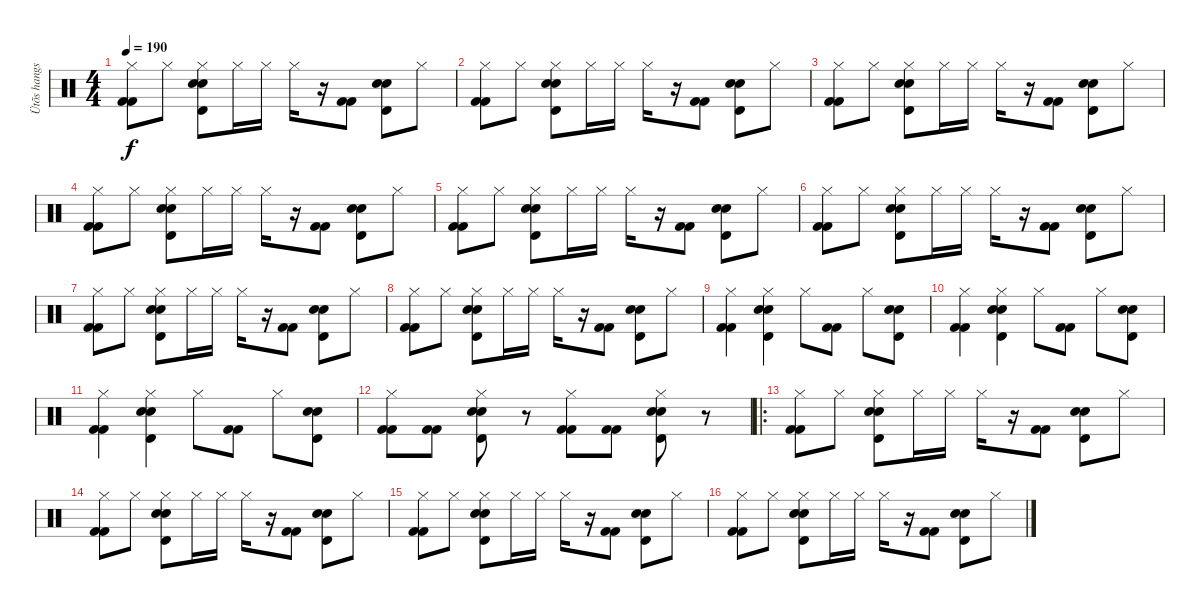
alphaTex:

\track ("Ütõs hangszer" "Ütõs hangs") {instrument percussion}
\staff {score}
\articulation defaults
\ts (4 4)
\tempo 190
\clef neutral
\ks c
("Hi-Hat (closed)" "Kick (hit) 2" "Kick (hit) 2").8{dy f} "Hi-Hat (closed)".8 ("Hi-Hat (closed)" "Timbale high (hit)" "Electric Snare (hit)" "Electric Snare (hit)").8 "Hi-Hat (closed)".16 "Hi-Hat (closed)".16 "Hi-Hat (closed)".16 r.16 ("Kick (hit) 2" "Kick (hit) 2").8 ("Timbale high (hit)" "Electric Snare (hit)" "Electric Snare (hit)").8 "Hi-Hat (closed)".8 |
("Hi-Hat (closed)" "Kick (hit) 2" "Kick (hit) 2").8 "Hi-Hat (closed)".8 ("Hi-Hat (closed)" "Timbale high (hit)" "Electric Snare (hit)" "Electric Snare (hit)").8 "Hi-Hat (closed)".16 "Hi-Hat (closed)".16 "Hi-Hat (closed)".16 r.16 ("Kick (hit) 2" "Kick (hit) 2").8 ("Timbale high (hit)" "Electric Snare (hit)" "Electric Snare (hit)").8 "Hi-Hat (closed)".8 |
("Hi-Hat (closed)" "Kick (hit) 2" "Kick (hit) 2").8 "Hi-Hat (closed)".8 ("Hi-Hat (closed)" "Timbale high (hit)" "Electric Snare (hit)" "Electric Snare (hit)").8 "Hi-Hat (closed)".16 "Hi-Hat (closed)".16 "Hi-Hat (closed)".16 r.16 ("Kick (hit) 2" "Kick (hit) 2").8 ("Timbale high (hit)" "Electric Snare (hit)" "Electric Snare (hit)").8 "Hi-Hat (closed)".8 |
("Hi-Hat (closed)" "Kick (hit) 2" "Kick (hit) 2").8 "Hi-Hat (closed)".8 ("Hi-Hat (closed)" "Timbale high (hit)" "Electric Snare (hit)" "Electric Snare (hit)").8 "Hi-Hat (closed)".16 "Hi-Hat (closed)".16 "Hi-Hat (closed)".16 r.16 ("Kick (hit) 2" "Kick (hit) 2").8 ("Timbale high (hit)" "Electric Snare (hit)" "Electric Snare (hit)").8 "Hi-Hat (closed)".8 |
("Hi-Hat (closed)" "Kick (hit) 2" "Kick (hit) 2").8 "Hi-Hat (closed)".8 ("Hi-Hat (closed)" "Timbale high (hit)" "Electric Snare (hit)" "Electric Snare (hit)").8 "Hi-Hat (closed)".16 "Hi-Hat (closed)".16 "Hi-Hat (closed)".16 r.16 ("Kick (hit) 2" "Kick (hit) 2").8 ("Timbale high (hit)" "Electric Snare (hit)" "Electric Snare (hit)").8 "Hi-Hat (closed)".8 |
("Hi-Hat (closed)" "Kick (hit) 2" "Kick (hit) 2").8 "Hi-Hat (closed)".8 ("Hi-Hat (closed)" "Timbale high (hit)" "Electric Snare (hit)" "Electric Snare (hit)").8 "Hi-Hat (closed)".16 "Hi-Hat (closed)".16 "Hi-Hat (closed)".16 r.16 ("Kick (hit) 2" "Kick (hit) 2").8 ("Timbale high (hit)" "Electric Snare (hit)" "Electric Snare (hit)").8 "Hi-Hat (closed)".8 |
("Hi-Hat (closed)" "Kick (hit) 2" "Kick (hit) 2").8 "Hi-Hat (closed)".8 ("Hi-Hat (closed)" "Timbale high (hit)" "Electric Snare (hit)" "Electric Snare (hit)").8 "Hi-Hat (closed)".16 "Hi-Hat (closed)".16 "Hi-Hat (closed)".16 r.16 ("Kick (hit) 2" "Kick (hit) 2").8 ("Timbale high (hit)" "Electric Snare (hit)" "Electric Snare (hit)").8 "Hi-Hat (closed)".8 |
("Hi-Hat (closed)" "Kick (hit) 2" "Kick (hit) 2").8 "Hi-Hat (closed)".8 ("Hi-Hat (closed)" "Timbale high (hit)" "Electric Snare (hit)" "Electric Snare (hit)").8 "Hi-Hat (closed)".16 "Hi-Hat (closed)".16 "Hi-Hat (closed)".16 r.16 ("Kick (hit) 2" "Kick (hit) 2").8 ("Timbale high (hit)" "Electric Snare (hit)" "Electric Snare (hit)").8 "Hi-Hat (closed)".8 |
("Hi-Hat (closed)" "Kick (hit) 2" "Kick (hit) 2").4 ("Hi-Hat (closed)" "Timbale high (hit)" "Electric Snare (hit)" "Electric Snare (hit)").4 "Hi-Hat (closed)".8 ("Kick (hit) 2" "Kick (hit) 2").8 "Hi-Hat (closed)".8 ("Timbale high (hit)" "Electric Snare (hit)" "Electric Snare (hit)").8 |
("Hi-Hat (closed)" "Kick (hit) 2" "Kick (hit) 2").4 ("Hi-Hat (closed)" "Timbale high (hit)" "Electric Snare (hit)" "Electric Snare (hit)").4 "Hi-Hat (closed)".8 ("Kick (hit) 2" "Kick (hit) 2").8 "Hi-Hat (closed)".8 ("Timbale high (hit)" "Electric Snare (hit)" "Electric Snare (hit)").8 |
("Hi-Hat (closed)" "Kick (hit) 2" "Kick (hit) 2").4 ("Hi-Hat (closed)" "Timbale high (hit)" "Electric Snare (hit)" "Electric Snare (hit)").4 "Hi-Hat (closed)".8 ("Kick (hit) 2" "Kick (hit) 2").8 "Hi-Hat (closed)".8 ("Timbale high (hit)" "Electric Snare (hit)" "Electric Snare (hit)").8 |
("Hi-Hat (closed)" "Kick (hit) 2" "Kick (hit) 2").8 ("Kick (hit) 2" "Kick (hit) 2").8 ("Hi-Hat (closed)" "Timbale high (hit)" "Electric Snare (hit)" "Electric Snare (hit)").8 r.8 ("Hi-Hat (closed)" "Kick (hit) 2" "Kick (hit) 2").8 ("Kick (hit) 2" "Kick (hit) 2").8 ("Hi-Hat (closed)" "Timbale high (hit)" "Electric Snare (hit)" "Electric Snare (hit)").8 r.8 |
\ro
("Hi-Hat (closed)" "Kick (hit) 2" "Kick (hit) 2").8 "Hi-Hat (closed)".8 ("Hi-Hat (closed)" "Timbale high (hit)" "Electric Snare (hit)" "Electric Snare (hit)").8 "Hi-Hat (closed)".16 "Hi-Hat (closed)".16 "Hi-Hat (closed)".16 r.16 ("Kick (hit) 2" "Kick (hit) 2").8 ("Timbale high (hit)" "Electric Snare (hit)" "Electric Snare (hit)").8 "Hi-Hat (closed)".8 |
("Hi-Hat (closed)" "Kick (hit) 2" "Kick (hit) 2").8 "Hi-Hat (closed)".8 ("Hi-Hat (closed)" "Timbale high (hit)" "Electric Snare (hit)" "Electric Snare (hit)").8 "Hi-Hat (closed)".16 "Hi-Hat (closed)".16 "Hi-Hat (closed)".16 r.16 ("Kick (hit) 2" "Kick (hit) 2").8 ("Timbale high (hit)" "Electric Snare (hit)" "Electric Snare (hit)").8 "Hi-Hat (closed)".8 |
("Hi-Hat (closed)" "Kick (hit) 2" "Kick (hit) 2").8 "Hi-Hat (closed)".8 ("Hi-Hat (closed)" "Timbale high (hit)" "Electric Snare (hit)" "Electric Snare (hit)").8 "Hi-Hat (closed)".16 "Hi-Hat (closed)".16 "Hi-Hat (closed)".16 r.16 ("Kick (hit) 2" "Kick (hit) 2").8 ("Timbale high (hit)" "Electric Snare (hit)" "Electric Snare (hit)").8 "Hi-Hat (closed)".8 |
("Hi-Hat (closed)" "Kick (hit) 2" "Kick (hit) 2").8 "Hi-Hat (closed)".8 ("Hi-Hat (closed)" "Timbale high (hit)" "Electric Snare (hit)" "Electric Snare (hit)").8 "Hi-Hat (closed)".16 "Hi-Hat (closed)".16 "Hi-Hat (closed)".16 r.16 ("Kick (hit) 2" "Kick (hit) 2").8 ("Timbale high (hit)" "Electric Snare (hit)" "Electric Snare (hit)").8 "Hi-Hat (closed)".8
